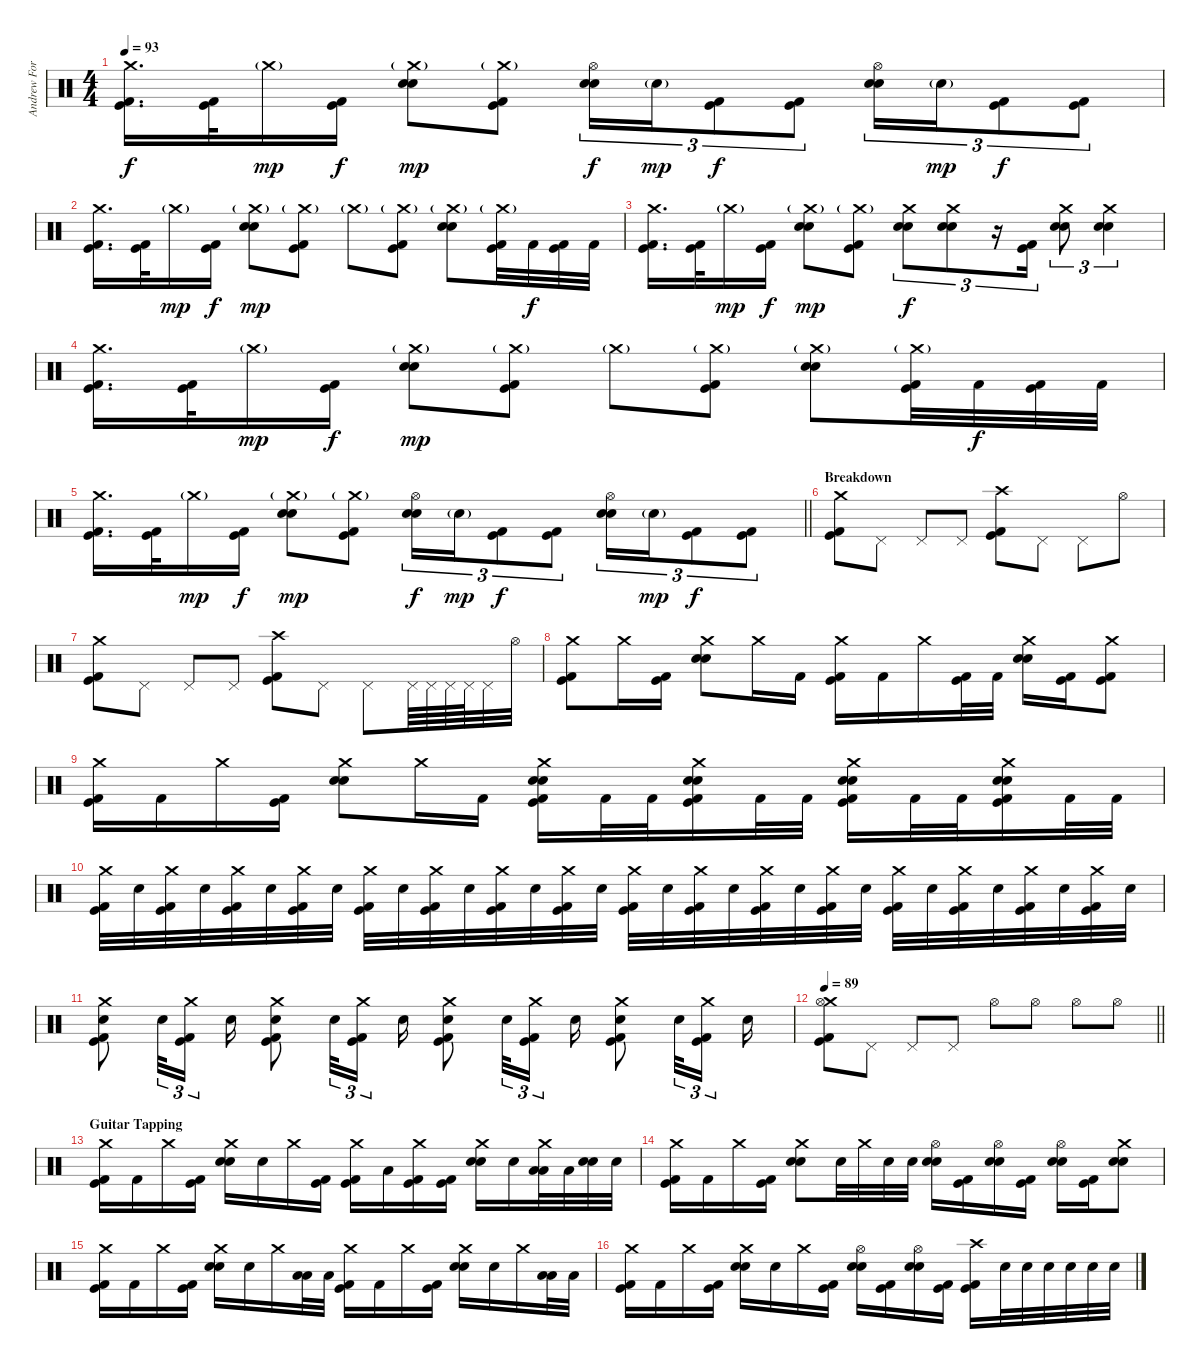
\track ("Andrew Forsman" "Andrew For") {instrument percussion}
\staff {score}
\articulation defaults
\ts (4 4)
\tempo 93
\clef neutral
\ks c
("Crash medium (hit)" "Kick (hit)" "Kick (hit) 2").16{d dy f} ("Kick (hit)" "Kick (hit) 2").32 "Crash medium (hit)"{g}.16{dy mp} ("Kick (hit)" "Kick (hit) 2").16{dy f} ("Crash medium (hit)"{g} "Electric Snare (hit)" "Electric Snare (hit)").8{dy mp} ("Crash medium (hit)"{g} "Kick (hit)" "Kick (hit) 2").8 ("Hi-Hat (open)" "Electric Snare (hit)" "Electric Snare (hit)").16{tu (3 2) dy f} "Electric Snare (hit)"{g}.16{tu (3 2) dy mp} ("Kick (hit)" "Kick (hit) 2").8{tu (3 2) dy f} ("Kick (hit)" "Kick (hit) 2").8{tu (3 2)} ("Hi-Hat (open)" "Electric Snare (hit)" "Electric Snare (hit)").16{tu (3 2)} "Electric Snare (hit)"{g}.16{tu (3 2) dy mp} ("Kick (hit)" "Kick (hit) 2").8{tu (3 2) dy f} ("Kick (hit)" "Kick (hit) 2").8{tu (3 2)} |
("Crash medium (hit)" "Kick (hit)" "Kick (hit) 2").16{d} ("Kick (hit)" "Kick (hit) 2").32 "Crash medium (hit)"{g}.16{dy mp} ("Kick (hit)" "Kick (hit) 2").16{dy f} ("Crash medium (hit)"{g} "Electric Snare (hit)" "Electric Snare (hit)").8{dy mp} ("Crash medium (hit)"{g} "Kick (hit)" "Kick (hit) 2").8 "Crash medium (hit)"{g}.8 ("Crash medium (hit)"{g} "Kick (hit)" "Kick (hit) 2").8 ("Crash medium (hit)"{g} "Electric Snare (hit)" "Electric Snare (hit)").8 ("Crash medium (hit)"{g} "Kick (hit)" "Kick (hit) 2").32 "Kick (hit) 2".32{dy f} ("Kick (hit)" "Kick (hit) 2").32 "Kick (hit) 2".32 |
("Crash medium (hit)" "Kick (hit)" "Kick (hit) 2").16{d} ("Kick (hit)" "Kick (hit) 2").32 "Crash medium (hit)"{g}.16{dy mp} ("Kick (hit)" "Kick (hit) 2").16{dy f} ("Crash medium (hit)"{g} "Electric Snare (hit)" "Electric Snare (hit)").8{dy mp} ("Crash medium (hit)"{g} "Kick (hit)" "Kick (hit) 2").8 ("Crash medium (hit)" "Electric Snare (hit)" "Electric Snare (hit)").8{tu (3 2) dy f} ("Crash medium (hit)" "Electric Snare (hit)" "Electric Snare (hit)").8{tu (3 2)} r.16{tu (3 2)} ("Kick (hit)" "Kick (hit) 2").16{tu (3 2)} ("Crash medium (hit)" "Electric Snare (hit)" "Electric Snare (hit)").8{tu (3 2)} ("Crash medium (hit)" "Electric Snare (hit)" "Electric Snare (hit)").4{tu (3 2)} |
("Crash medium (hit)" "Kick (hit)" "Kick (hit) 2").16{d} ("Kick (hit)" "Kick (hit) 2").32 "Crash medium (hit)"{g}.16{dy mp} ("Kick (hit)" "Kick (hit) 2").16{dy f} ("Crash medium (hit)"{g} "Electric Snare (hit)" "Electric Snare (hit)").8{dy mp} ("Crash medium (hit)"{g} "Kick (hit)" "Kick (hit) 2").8 "Crash medium (hit)"{g}.8 ("Crash medium (hit)"{g} "Kick (hit)" "Kick (hit) 2").8 ("Crash medium (hit)"{g} "Electric Snare (hit)" "Electric Snare (hit)").8 ("Crash medium (hit)"{g} "Kick (hit)" "Kick (hit) 2").32 "Kick (hit) 2".32{dy f} ("Kick (hit)" "Kick (hit) 2").32 "Kick (hit) 2".32 |
\barLineRight lightlight
("Crash medium (hit)" "Kick (hit)" "Kick (hit) 2").16{d} ("Kick (hit)" "Kick (hit) 2").32 "Crash medium (hit)"{g}.16{dy mp} ("Kick (hit)" "Kick (hit) 2").16{dy f} ("Crash medium (hit)"{g} "Electric Snare (hit)" "Electric Snare (hit)").8{dy mp} ("Crash medium (hit)"{g} "Kick (hit)" "Kick (hit) 2").8 ("Hi-Hat (open)" "Electric Snare (hit)" "Electric Snare (hit)").16{tu (3 2) dy f} "Electric Snare (hit)"{g}.16{tu (3 2) dy mp} ("Kick (hit)" "Kick (hit) 2").8{tu (3 2) dy f} ("Kick (hit)" "Kick (hit) 2").8{tu (3 2)} ("Hi-Hat (open)" "Electric Snare (hit)" "Electric Snare (hit)").16{tu (3 2)} "Electric Snare (hit)"{g}.16{tu (3 2) dy mp} ("Kick (hit)" "Kick (hit) 2").8{tu (3 2) dy f} ("Kick (hit)" "Kick (hit) 2").8{tu (3 2)} |
\section ("" "Breakdown")
("Crash medium (hit)" "Kick (hit)" "Kick (hit) 2").8 "Pedal Hi-Hat (hit)".8 "Pedal Hi-Hat (hit)".8 "Pedal Hi-Hat (hit)".8 ("Crash high (hit)" "Kick (hit)" "Kick (hit) 2").8 "Pedal Hi-Hat (hit)".8 "Pedal Hi-Hat (hit)".8 "Hi-Hat (open)".8 |
("Crash medium (hit)" "Kick (hit)" "Kick (hit) 2").8 "Pedal Hi-Hat (hit)".8 "Pedal Hi-Hat (hit)".8 "Pedal Hi-Hat (hit)".8 ("Crash high (hit)" "Kick (hit)" "Kick (hit) 2").8 "Pedal Hi-Hat (hit)".8 "Pedal Hi-Hat (hit)".8 "Pedal Hi-Hat (hit)".64 "Pedal Hi-Hat (hit)".64 "Pedal Hi-Hat (hit)".64 "Pedal Hi-Hat (hit)".64 "Pedal Hi-Hat (hit)".32 "Hi-Hat (open)".32 |
("Crash medium (hit)" "Kick (hit)" "Kick (hit) 2").8 "Crash medium (hit)".16 ("Kick (hit)" "Kick (hit) 2").16 ("Crash medium (hit)" "Electric Snare (hit)" "Electric Snare (hit)").8 "Crash medium (hit)".16 "Kick (hit) 2".16 ("Crash medium (hit)" "Kick (hit)" "Kick (hit) 2").16 "Kick (hit) 2".16 "Crash medium (hit)".16 ("Kick (hit)" "Kick (hit) 2").32 "Kick (hit) 2".32 ("Crash medium (hit)" "Electric Snare (hit)" "Electric Snare (hit)").16 ("Kick (hit)" "Kick (hit) 2").16 ("Crash medium (hit)" "Kick (hit)" "Kick (hit) 2").8 |
("Crash medium (hit)" "Kick (hit)" "Kick (hit) 2").16 "Kick (hit) 2".16 "Crash medium (hit)".16 ("Kick (hit)" "Kick (hit) 2").16 ("Crash medium (hit)" "Electric Snare (hit)" "Electric Snare (hit)").8 "Crash medium (hit)".16 "Kick (hit) 2".16 ("Crash medium (hit)" "Electric Snare (hit)" "Electric Snare (hit)" "Kick (hit)" "Kick (hit) 2").16 "Kick (hit) 2".32 "Kick (hit) 2".32 ("Crash medium (hit)" "Electric Snare (hit)" "Electric Snare (hit)" "Kick (hit)" "Kick (hit) 2").16 "Kick (hit) 2".32 "Kick (hit) 2".32 ("Crash medium (hit)" "Electric Snare (hit)" "Electric Snare (hit)" "Kick (hit)" "Kick (hit) 2").16 "Kick (hit) 2".32 "Kick (hit) 2".32 ("Crash medium (hit)" "Electric Snare (hit)" "Electric Snare (hit)" "Kick (hit)" "Kick (hit) 2").16 "Kick (hit) 2".32 "Kick (hit) 2".32 |
("Crash medium (hit)" "Kick (hit)" "Kick (hit) 2").32 "Electric Snare (hit)".32 ("Crash medium (hit)" "Kick (hit)" "Kick (hit) 2").32 "Electric Snare (hit)".32 ("Crash medium (hit)" "Kick (hit)" "Kick (hit) 2").32 "Electric Snare (hit)".32 ("Crash medium (hit)" "Kick (hit)" "Kick (hit) 2").32 "Electric Snare (hit)".32 ("Crash medium (hit)" "Kick (hit)" "Kick (hit) 2").32 "Electric Snare (hit)".32 ("Crash medium (hit)" "Kick (hit)" "Kick (hit) 2").32 "Electric Snare (hit)".32 ("Crash medium (hit)" "Kick (hit)" "Kick (hit) 2").32 "Electric Snare (hit)".32 ("Crash medium (hit)" "Kick (hit)" "Kick (hit) 2").32 "Electric Snare (hit)".32 ("Crash medium (hit)" "Kick (hit)" "Kick (hit) 2").32 "Electric Snare (hit)".32 ("Crash medium (hit)" "Kick (hit)" "Kick (hit) 2").32 "Electric Snare (hit)".32 ("Crash medium (hit)" "Kick (hit)" "Kick (hit) 2").32 "Electric Snare (hit)".32 ("Crash medium (hit)" "Kick (hit)" "Kick (hit) 2").32 "Electric Snare (hit)".32 ("Crash medium (hit)" "Kick (hit)" "Kick (hit) 2").32 "Electric Snare (hit)".32 ("Crash medium (hit)" "Kick (hit)" "Kick (hit) 2").32 "Electric Snare (hit)".32 ("Crash medium (hit)" "Kick (hit)" "Kick (hit) 2").32 "Electric Snare (hit)".32 ("Crash medium (hit)" "Kick (hit)" "Kick (hit) 2").32 "Electric Snare (hit)".32 |
("Crash medium (hit)" "Electric Snare (hit)" "Kick (hit)" "Kick (hit) 2").8 "Electric Snare (hit)".32{tu (3 2)} ("Crash medium (hit)" "Kick (hit)" "Kick (hit) 2").16{tu (3 2) beam splitsecondary} "Electric Snare (hit)".16 ("Crash medium (hit)" "Electric Snare (hit)" "Kick (hit)" "Kick (hit) 2").8 "Electric Snare (hit)".32{tu (3 2)} ("Crash medium (hit)" "Kick (hit)" "Kick (hit) 2").16{tu (3 2) beam splitsecondary} "Electric Snare (hit)".16 ("Crash medium (hit)" "Electric Snare (hit)" "Kick (hit)" "Kick (hit) 2").8 "Electric Snare (hit)".32{tu (3 2)} ("Crash medium (hit)" "Kick (hit)" "Kick (hit) 2").16{tu (3 2) beam splitsecondary} "Electric Snare (hit)".16 ("Crash medium (hit)" "Electric Snare (hit)" "Kick (hit)" "Kick (hit) 2").8 "Electric Snare (hit)".32{tu (3 2)} ("Crash medium (hit)" "Kick (hit)" "Kick (hit) 2").16{tu (3 2) beam splitsecondary} "Electric Snare (hit)".16 |
\tempo 89
\barLineRight lightlight
("Crash medium (hit)" "Hi-Hat (open)" "Kick (hit)" "Kick (hit) 2").8 "Pedal Hi-Hat (hit)".8 "Pedal Hi-Hat (hit)".8 "Pedal Hi-Hat (hit)".8 "Hi-Hat (open)".8 "Hi-Hat (open)".8 "Hi-Hat (open)".8 "Hi-Hat (open)".8 |
\section ("" "Guitar Tapping")
("Crash medium (hit)" "Kick (hit)" "Kick (hit) 2").16 "Kick (hit) 2".16 "Crash medium (hit)".16 ("Kick (hit)" "Kick (hit) 2").16 ("Crash medium (hit)" "Electric Snare (hit)" "Electric Snare (hit)").16 "Electric Snare (hit)".16 "Crash medium (hit)".16 ("Kick (hit)" "Kick (hit) 2").16 ("Crash medium (hit)" "Kick (hit)" "Kick (hit) 2").16 "Low Tom (hit)".16 ("Crash medium (hit)" "Kick (hit)" "Kick (hit) 2").16 ("Kick (hit)" "Kick (hit) 2").16 ("Crash medium (hit)" "Electric Snare (hit)" "Electric Snare (hit)").16 "Electric Snare (hit)".16 ("Crash medium (hit)" "Low Tom (hit)" "Low Tom (hit)").32 "Low Tom (hit)".32 ("Electric Snare (hit)" "Electric Snare (hit)").32 "Electric Snare (hit)".32 |
("Crash medium (hit)" "Kick (hit)" "Kick (hit) 2").16 "Kick (hit) 2".16 "Crash medium (hit)".16 ("Kick (hit)" "Kick (hit) 2").16 ("Crash medium (hit)" "Electric Snare (hit)" "Electric Snare (hit)").8 "Electric Snare (hit)".32 "Crash medium (hit)".32 "Electric Snare (hit)".32 "Electric Snare (hit)".32 ("Hi-Hat (open)" "Electric Snare (hit)" "Electric Snare (hit)").16 ("Kick (hit)" "Kick (hit) 2").16 ("Hi-Hat (open)" "Electric Snare (hit)" "Electric Snare (hit)").16 ("Kick (hit)" "Kick (hit) 2").16 ("Hi-Hat (open)" "Electric Snare (hit)" "Electric Snare (hit)").16 ("Kick (hit)" "Kick (hit) 2").16 ("Crash medium (hit)" "Electric Snare (hit)" "Electric Snare (hit)").8 |
("Crash medium (hit)" "Kick (hit)" "Kick (hit) 2").16 "Kick (hit) 2".16 "Crash medium (hit)".16 ("Kick (hit)" "Kick (hit) 2").16 ("Crash medium (hit)" "Electric Snare (hit)" "Electric Snare (hit)").16 "Electric Snare (hit)".16 "Crash medium (hit)".16 ("Low Tom (hit)" "Low Tom (hit)").32 "Low Tom (hit)".32 ("Crash medium (hit)" "Kick (hit)" "Kick (hit) 2").16 "Kick (hit) 2".16 "Crash medium (hit)".16 ("Kick (hit)" "Kick (hit) 2").16 ("Crash medium (hit)" "Electric Snare (hit)" "Electric Snare (hit)").16 "Electric Snare (hit)".16 "Crash medium (hit)".16 ("Low Tom (hit)" "Low Tom (hit)").32 "Low Tom (hit)".32 |
("Crash medium (hit)" "Kick (hit)" "Kick (hit) 2").16 "Kick (hit) 2".16 "Crash medium (hit)".16 ("Kick (hit)" "Kick (hit) 2").16 ("Crash medium (hit)" "Electric Snare (hit)" "Electric Snare (hit)").16 "Electric Snare (hit)".16 "Crash medium (hit)".16 ("Kick (hit)" "Kick (hit) 2").16 ("Hi-Hat (open)" "Electric Snare (hit)" "Electric Snare (hit)").16 ("Kick (hit)" "Kick (hit) 2").16 ("Hi-Hat (open)" "Electric Snare (hit)" "Electric Snare (hit)").16 ("Kick (hit)" "Kick (hit) 2").16 ("Crash high (hit)" "Kick (hit)" "Kick (hit) 2").16 "Electric Snare (hit)".32 "Electric Snare (hit)".32 "Electric Snare (hit)".32 "Electric Snare (hit)".32 "Electric Snare (hit)".32 "Electric Snare (hit)".32
